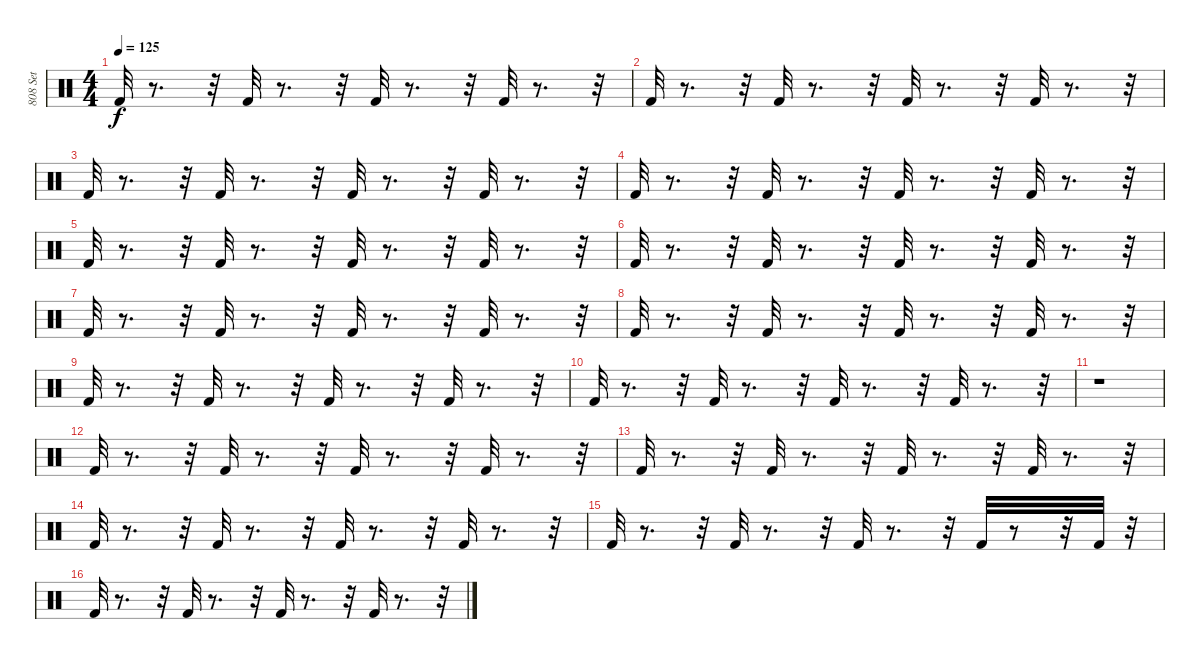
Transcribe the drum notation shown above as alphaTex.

\track ("808 Set" "808 Set") {instrument percussion}
\staff {score}
\articulation defaults
\ts (4 4)
\tempo 125
\clef neutral
\ks c "Kick (hit) 2".32{dy f}
r.8{d} r.32 "Kick (hit) 2".32 r.8{d} r.32 "Kick (hit) 2".32 r.8{d} r.32 "Kick (hit) 2".32 r.8{d} r.32 |
"Kick (hit) 2".32 r.8{d} r.32 "Kick (hit) 2".32 r.8{d} r.32 "Kick (hit) 2".32 r.8{d} r.32 "Kick (hit) 2".32 r.8{d} r.32 |
"Kick (hit) 2".32 r.8{d} r.32 "Kick (hit) 2".32 r.8{d} r.32 "Kick (hit) 2".32 r.8{d} r.32 "Kick (hit) 2".32 r.8{d} r.32 |
"Kick (hit) 2".32 r.8{d} r.32 "Kick (hit) 2".32 r.8{d} r.32 "Kick (hit) 2".32 r.8{d} r.32 "Kick (hit) 2".32 r.8{d} r.32 |
"Kick (hit) 2".32 r.8{d} r.32 "Kick (hit) 2".32 r.8{d} r.32 "Kick (hit) 2".32 r.8{d} r.32 "Kick (hit) 2".32 r.8{d} r.32 |
"Kick (hit) 2".32 r.8{d} r.32 "Kick (hit) 2".32 r.8{d} r.32 "Kick (hit) 2".32 r.8{d} r.32 "Kick (hit) 2".32 r.8{d} r.32 |
"Kick (hit) 2".32 r.8{d} r.32 "Kick (hit) 2".32 r.8{d} r.32 "Kick (hit) 2".32 r.8{d} r.32 "Kick (hit) 2".32 r.8{d} r.32 |
"Kick (hit) 2".32 r.8{d} r.32 "Kick (hit) 2".32 r.8{d} r.32 "Kick (hit) 2".32 r.8{d} r.32 "Kick (hit) 2".32 r.8{d} r.32 |
"Kick (hit) 2".32 r.8{d} r.32 "Kick (hit) 2".32 r.8{d} r.32 "Kick (hit) 2".32 r.8{d} r.32 "Kick (hit) 2".32 r.8{d} r.32 |
"Kick (hit) 2".32 r.8{d} r.32 "Kick (hit) 2".32 r.8{d} r.32 "Kick (hit) 2".32 r.8{d} r.32 "Kick (hit) 2".32 r.8{d} r.32 |
r.1 |
"Kick (hit) 2".32 r.8{d} r.32 "Kick (hit) 2".32 r.8{d} r.32 "Kick (hit) 2".32 r.8{d} r.32 "Kick (hit) 2".32 r.8{d} r.32 |
"Kick (hit) 2".32 r.8{d} r.32 "Kick (hit) 2".32 r.8{d} r.32 "Kick (hit) 2".32 r.8{d} r.32 "Kick (hit) 2".32 r.8{d} r.32 |
"Kick (hit) 2".32 r.8{d} r.32 "Kick (hit) 2".32 r.8{d} r.32 "Kick (hit) 2".32 r.8{d} r.32 "Kick (hit) 2".32 r.8{d} r.32 |
"Kick (hit) 2".32 r.8{d} r.32 "Kick (hit) 2".32 r.8{d} r.32 "Kick (hit) 2".32 r.8{d} r.32 "Kick (hit) 2".32 r.8 r.32 "Kick (hit) 2".32 r.32 |
"Kick (hit) 2".32 r.8{d} r.32 "Kick (hit) 2".32 r.8{d} r.32 "Kick (hit) 2".32 r.8{d} r.32 "Kick (hit) 2".32 r.8{d} r.32
